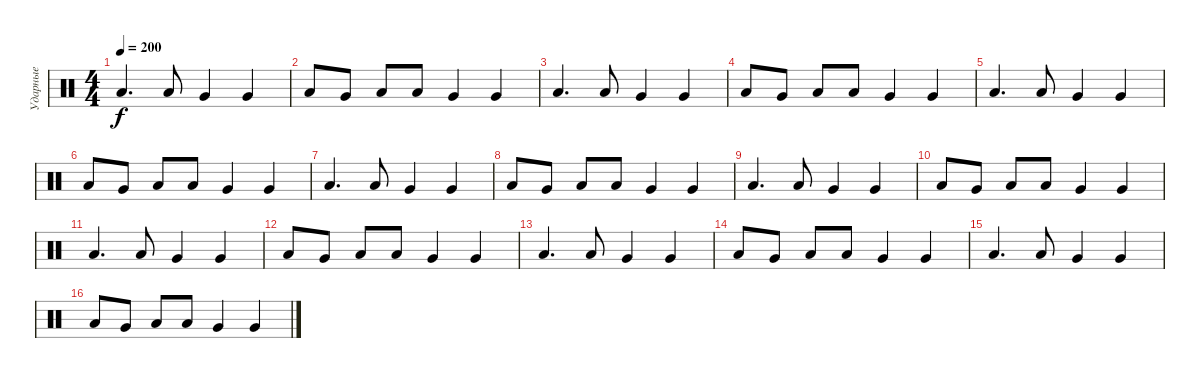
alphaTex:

\track ("Ударные" "Ударные") {instrument percussion}
\staff {score}
\articulation defaults
\ts (4 4)
\tempo 200
\clef neutral
\ks c "Low Floor Tom (hit)".4{d dy f} "Low Floor Tom (hit)".8 "Very Low Tom (hit)".4 "Very Low Tom (hit)".4
|
"Low Floor Tom (hit)".8 "Very Low Tom (hit)".8 "Low Floor Tom (hit)".8 "Low Floor Tom (hit)".8 "Very Low Tom (hit)".4 "Very Low Tom (hit)".4 |
"Low Floor Tom (hit)".4{d} "Low Floor Tom (hit)".8 "Very Low Tom (hit)".4 "Very Low Tom (hit)".4 |
"Low Floor Tom (hit)".8 "Very Low Tom (hit)".8 "Low Floor Tom (hit)".8 "Low Floor Tom (hit)".8 "Very Low Tom (hit)".4 "Very Low Tom (hit)".4 |
"Low Floor Tom (hit)".4{d} "Low Floor Tom (hit)".8 "Very Low Tom (hit)".4 "Very Low Tom (hit)".4 |
"Low Floor Tom (hit)".8 "Very Low Tom (hit)".8 "Low Floor Tom (hit)".8 "Low Floor Tom (hit)".8 "Very Low Tom (hit)".4 "Very Low Tom (hit)".4 |
"Low Floor Tom (hit)".4{d} "Low Floor Tom (hit)".8 "Very Low Tom (hit)".4 "Very Low Tom (hit)".4 |
"Low Floor Tom (hit)".8 "Very Low Tom (hit)".8 "Low Floor Tom (hit)".8 "Low Floor Tom (hit)".8 "Very Low Tom (hit)".4 "Very Low Tom (hit)".4 |
"Low Floor Tom (hit)".4{d} "Low Floor Tom (hit)".8 "Very Low Tom (hit)".4 "Very Low Tom (hit)".4 |
"Low Floor Tom (hit)".8 "Very Low Tom (hit)".8 "Low Floor Tom (hit)".8 "Low Floor Tom (hit)".8 "Very Low Tom (hit)".4 "Very Low Tom (hit)".4 |
"Low Floor Tom (hit)".4{d} "Low Floor Tom (hit)".8 "Very Low Tom (hit)".4 "Very Low Tom (hit)".4 |
"Low Floor Tom (hit)".8 "Very Low Tom (hit)".8 "Low Floor Tom (hit)".8 "Low Floor Tom (hit)".8 "Very Low Tom (hit)".4 "Very Low Tom (hit)".4 |
"Low Floor Tom (hit)".4{d} "Low Floor Tom (hit)".8 "Very Low Tom (hit)".4 "Very Low Tom (hit)".4 |
"Low Floor Tom (hit)".8 "Very Low Tom (hit)".8 "Low Floor Tom (hit)".8 "Low Floor Tom (hit)".8 "Very Low Tom (hit)".4 "Very Low Tom (hit)".4 |
"Low Floor Tom (hit)".4{d} "Low Floor Tom (hit)".8 "Very Low Tom (hit)".4 "Very Low Tom (hit)".4 |
"Low Floor Tom (hit)".8 "Very Low Tom (hit)".8 "Low Floor Tom (hit)".8 "Low Floor Tom (hit)".8 "Very Low Tom (hit)".4 "Very Low Tom (hit)".4
